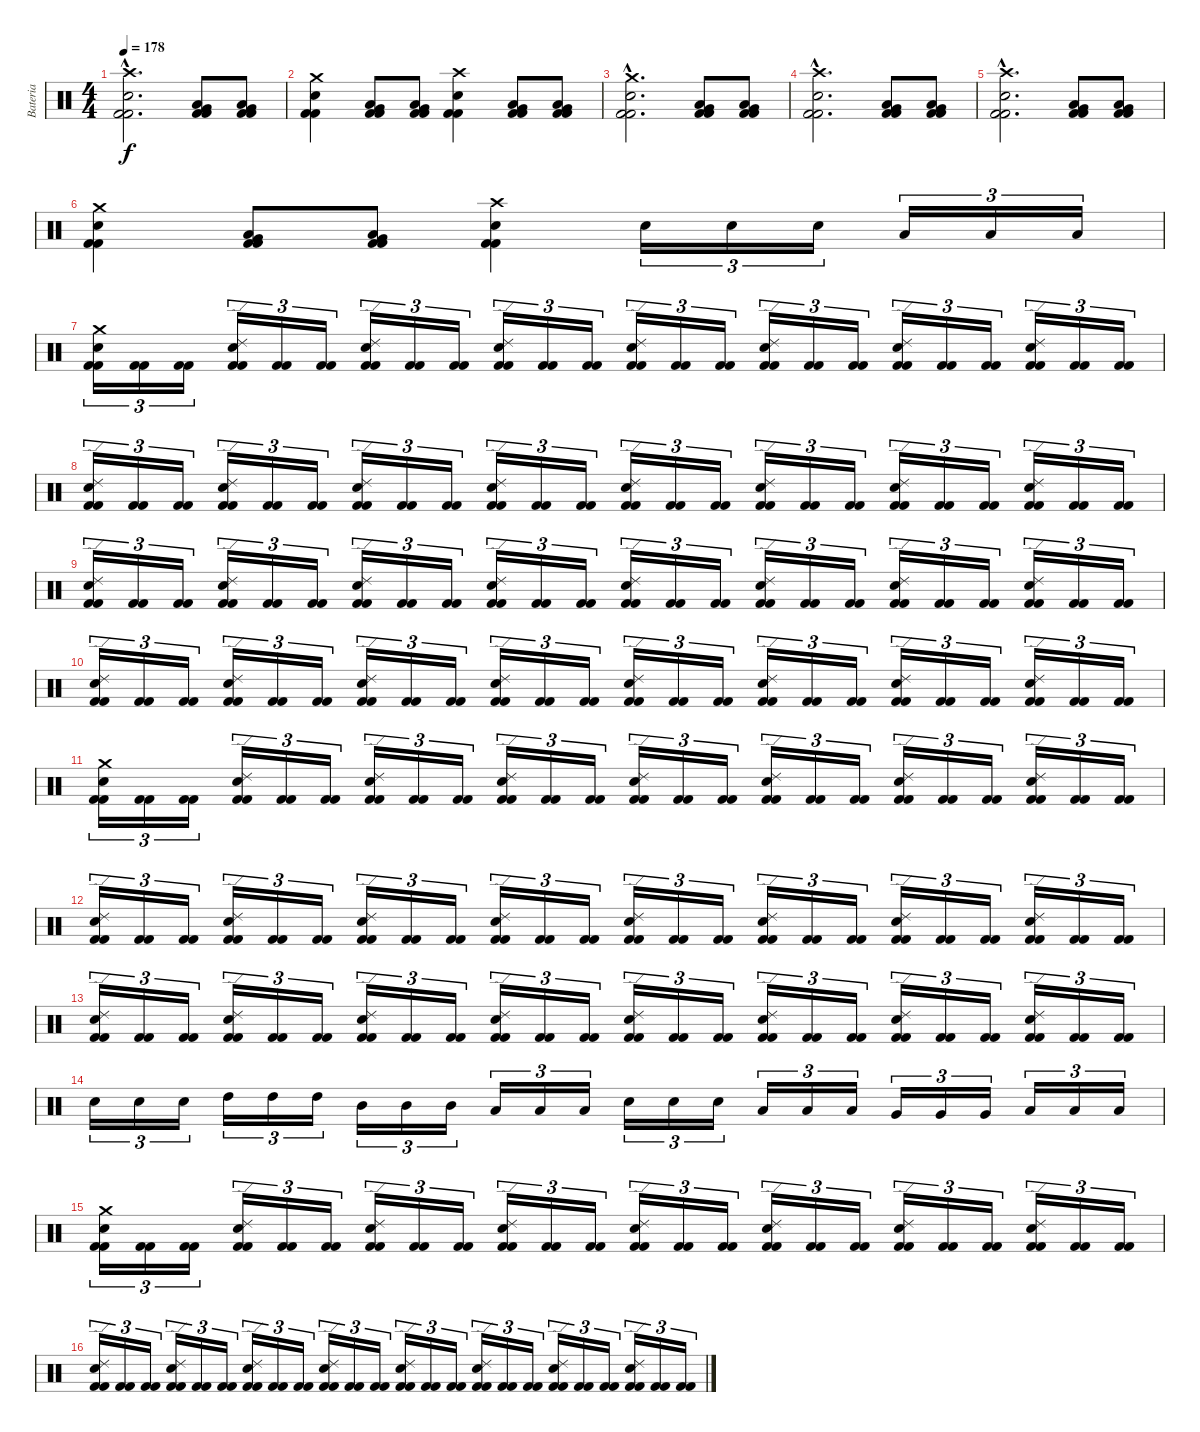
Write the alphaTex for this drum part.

\track ("Bateria" "Bateria") {instrument percussion}
\staff {score}
\articulation defaults
\ts (4 4)
\tempo 178
\clef neutral
\ks c
("Kick (hit) 2"{hac} "Kick (hit) 2"{hac} "Snare (hit) 2"{hac} "Crash high (hit)"{hac}).2{d dy f} ("Kick (hit) 2" "Kick (hit) 2" "Low Tom (hit)" "Very Low Tom (hit)").8 ("Kick (hit) 2" "Kick (hit) 2" "Low Tom (hit)" "Very Low Tom (hit)").8 |
("Kick (hit) 2" "Kick (hit) 2" "Snare (hit) 2" "Crash medium (hit)").4 ("Kick (hit) 2" "Kick (hit) 2" "Low Tom (hit)" "Very Low Tom (hit)").8 ("Kick (hit) 2" "Kick (hit) 2" "Low Tom (hit)" "Very Low Tom (hit)").8 ("Kick (hit) 2" "Kick (hit) 2" "Snare (hit) 2" "Crash high (hit)").4 ("Kick (hit) 2" "Kick (hit) 2" "Low Tom (hit)" "Very Low Tom (hit)").8 ("Kick (hit) 2" "Kick (hit) 2" "Low Tom (hit)" "Very Low Tom (hit)").8 |
("Kick (hit) 2"{hac} "Kick (hit) 2"{hac} "Snare (hit) 2"{hac} "Crash medium (hit)"{hac}).2{d} ("Kick (hit) 2" "Kick (hit) 2" "Low Tom (hit)" "Very Low Tom (hit)").8 ("Kick (hit) 2" "Kick (hit) 2" "Low Tom (hit)" "Very Low Tom (hit)").8 |
("Kick (hit) 2"{hac} "Kick (hit) 2"{hac} "Snare (hit) 2"{hac} "Crash high (hit)"{hac}).2{d} ("Kick (hit) 2" "Kick (hit) 2" "Low Tom (hit)" "Very Low Tom (hit)").8 ("Kick (hit) 2" "Kick (hit) 2" "Low Tom (hit)" "Very Low Tom (hit)").8 |
("Kick (hit) 2"{hac} "Kick (hit) 2"{hac} "Snare (hit) 2"{hac} "Crash high (hit)"{hac}).2{d} ("Kick (hit) 2" "Kick (hit) 2" "Low Tom (hit)" "Very Low Tom (hit)").8 ("Kick (hit) 2" "Kick (hit) 2" "Low Tom (hit)" "Very Low Tom (hit)").8 |
("Kick (hit) 2" "Kick (hit) 2" "Snare (hit) 2" "Crash medium (hit)").4 ("Kick (hit) 2" "Kick (hit) 2" "Low Tom (hit)" "Very Low Tom (hit)").8 ("Kick (hit) 2" "Kick (hit) 2" "Low Tom (hit)" "Very Low Tom (hit)").8 ("Kick (hit) 2" "Kick (hit) 2" "Snare (hit) 2" "Crash high (hit)").4 "Snare (hit) 2".16{tu (3 2)} "Snare (hit) 2".16{tu (3 2)} "Snare (hit) 2".16{tu (3 2)} "Low Tom (hit)".16{tu (3 2)} "Low Tom (hit)".16{tu (3 2)} "Low Tom (hit)".16{tu (3 2)} |
("Kick (hit) 2" "Kick (hit) 2" "Snare (hit) 2" "Crash medium (hit)").16{tu (3 2)} ("Kick (hit) 2" "Kick (hit) 2").16{tu (3 2)} ("Kick (hit) 2" "Kick (hit) 2").16{tu (3 2)} ("Kick (hit) 2" "Kick (hit) 2" "Snare (hit) 2" "Ride (edge) 2").16{tu (3 2)} ("Kick (hit) 2" "Kick (hit) 2").16{tu (3 2)} ("Kick (hit) 2" "Kick (hit) 2").16{tu (3 2)} ("Kick (hit) 2" "Kick (hit) 2" "Snare (hit) 2" "Ride (edge) 2").16{tu (3 2)} ("Kick (hit) 2" "Kick (hit) 2").16{tu (3 2)} ("Kick (hit) 2" "Kick (hit) 2").16{tu (3 2)} ("Kick (hit) 2" "Kick (hit) 2" "Snare (hit) 2" "Ride (edge) 2").16{tu (3 2)} ("Kick (hit) 2" "Kick (hit) 2").16{tu (3 2)} ("Kick (hit) 2" "Kick (hit) 2").16{tu (3 2)} ("Kick (hit) 2" "Kick (hit) 2" "Snare (hit) 2" "Ride (edge) 2").16{tu (3 2)} ("Kick (hit) 2" "Kick (hit) 2").16{tu (3 2)} ("Kick (hit) 2" "Kick (hit) 2").16{tu (3 2)} ("Kick (hit) 2" "Kick (hit) 2" "Snare (hit) 2" "Ride (edge) 2").16{tu (3 2)} ("Kick (hit) 2" "Kick (hit) 2").16{tu (3 2)} ("Kick (hit) 2" "Kick (hit) 2").16{tu (3 2)} ("Kick (hit) 2" "Kick (hit) 2" "Snare (hit) 2" "Ride (edge) 2").16{tu (3 2)} ("Kick (hit) 2" "Kick (hit) 2").16{tu (3 2)} ("Kick (hit) 2" "Kick (hit) 2").16{tu (3 2)} ("Kick (hit) 2" "Kick (hit) 2" "Snare (hit) 2" "Ride (edge) 2").16{tu (3 2)} ("Kick (hit) 2" "Kick (hit) 2").16{tu (3 2)} ("Kick (hit) 2" "Kick (hit) 2").16{tu (3 2)} |
("Kick (hit) 2" "Kick (hit) 2" "Snare (hit) 2" "Ride (edge) 2").16{tu (3 2)} ("Kick (hit) 2" "Kick (hit) 2").16{tu (3 2)} ("Kick (hit) 2" "Kick (hit) 2").16{tu (3 2)} ("Kick (hit) 2" "Kick (hit) 2" "Snare (hit) 2" "Ride (edge) 2").16{tu (3 2)} ("Kick (hit) 2" "Kick (hit) 2").16{tu (3 2)} ("Kick (hit) 2" "Kick (hit) 2").16{tu (3 2)} ("Kick (hit) 2" "Kick (hit) 2" "Snare (hit) 2" "Ride (edge) 2").16{tu (3 2)} ("Kick (hit) 2" "Kick (hit) 2").16{tu (3 2)} ("Kick (hit) 2" "Kick (hit) 2").16{tu (3 2)} ("Kick (hit) 2" "Kick (hit) 2" "Snare (hit) 2" "Ride (edge) 2").16{tu (3 2)} ("Kick (hit) 2" "Kick (hit) 2").16{tu (3 2)} ("Kick (hit) 2" "Kick (hit) 2").16{tu (3 2)} ("Kick (hit) 2" "Kick (hit) 2" "Snare (hit) 2" "Ride (edge) 2").16{tu (3 2)} ("Kick (hit) 2" "Kick (hit) 2").16{tu (3 2)} ("Kick (hit) 2" "Kick (hit) 2").16{tu (3 2)} ("Kick (hit) 2" "Kick (hit) 2" "Snare (hit) 2" "Ride (edge) 2").16{tu (3 2)} ("Kick (hit) 2" "Kick (hit) 2").16{tu (3 2)} ("Kick (hit) 2" "Kick (hit) 2").16{tu (3 2)} ("Kick (hit) 2" "Kick (hit) 2" "Snare (hit) 2" "Ride (edge) 2").16{tu (3 2)} ("Kick (hit) 2" "Kick (hit) 2").16{tu (3 2)} ("Kick (hit) 2" "Kick (hit) 2").16{tu (3 2)} ("Kick (hit) 2" "Kick (hit) 2" "Snare (hit) 2" "Ride (edge) 2").16{tu (3 2)} ("Kick (hit) 2" "Kick (hit) 2").16{tu (3 2)} ("Kick (hit) 2" "Kick (hit) 2").16{tu (3 2)} |
("Kick (hit) 2" "Kick (hit) 2" "Snare (hit) 2" "Ride (edge) 2").16{tu (3 2)} ("Kick (hit) 2" "Kick (hit) 2").16{tu (3 2)} ("Kick (hit) 2" "Kick (hit) 2").16{tu (3 2)} ("Kick (hit) 2" "Kick (hit) 2" "Snare (hit) 2" "Ride (edge) 2").16{tu (3 2)} ("Kick (hit) 2" "Kick (hit) 2").16{tu (3 2)} ("Kick (hit) 2" "Kick (hit) 2").16{tu (3 2)} ("Kick (hit) 2" "Kick (hit) 2" "Snare (hit) 2" "Ride (edge) 2").16{tu (3 2)} ("Kick (hit) 2" "Kick (hit) 2").16{tu (3 2)} ("Kick (hit) 2" "Kick (hit) 2").16{tu (3 2)} ("Kick (hit) 2" "Kick (hit) 2" "Snare (hit) 2" "Ride (edge) 2").16{tu (3 2)} ("Kick (hit) 2" "Kick (hit) 2").16{tu (3 2)} ("Kick (hit) 2" "Kick (hit) 2").16{tu (3 2)} ("Kick (hit) 2" "Kick (hit) 2" "Snare (hit) 2" "Ride (edge) 2").16{tu (3 2)} ("Kick (hit) 2" "Kick (hit) 2").16{tu (3 2)} ("Kick (hit) 2" "Kick (hit) 2").16{tu (3 2)} ("Kick (hit) 2" "Kick (hit) 2" "Snare (hit) 2" "Ride (edge) 2").16{tu (3 2)} ("Kick (hit) 2" "Kick (hit) 2").16{tu (3 2)} ("Kick (hit) 2" "Kick (hit) 2").16{tu (3 2)} ("Kick (hit) 2" "Kick (hit) 2" "Snare (hit) 2" "Ride (edge) 2").16{tu (3 2)} ("Kick (hit) 2" "Kick (hit) 2").16{tu (3 2)} ("Kick (hit) 2" "Kick (hit) 2").16{tu (3 2)} ("Kick (hit) 2" "Kick (hit) 2" "Snare (hit) 2" "Ride (edge) 2").16{tu (3 2)} ("Kick (hit) 2" "Kick (hit) 2").16{tu (3 2)} ("Kick (hit) 2" "Kick (hit) 2").16{tu (3 2)} |
("Kick (hit) 2" "Kick (hit) 2" "Snare (hit) 2" "Ride (edge) 2").16{tu (3 2)} ("Kick (hit) 2" "Kick (hit) 2").16{tu (3 2)} ("Kick (hit) 2" "Kick (hit) 2").16{tu (3 2)} ("Kick (hit) 2" "Kick (hit) 2" "Snare (hit) 2" "Ride (edge) 2").16{tu (3 2)} ("Kick (hit) 2" "Kick (hit) 2").16{tu (3 2)} ("Kick (hit) 2" "Kick (hit) 2").16{tu (3 2)} ("Kick (hit) 2" "Kick (hit) 2" "Snare (hit) 2" "Ride (edge) 2").16{tu (3 2)} ("Kick (hit) 2" "Kick (hit) 2").16{tu (3 2)} ("Kick (hit) 2" "Kick (hit) 2").16{tu (3 2)} ("Kick (hit) 2" "Kick (hit) 2" "Snare (hit) 2" "Ride (edge) 2").16{tu (3 2)} ("Kick (hit) 2" "Kick (hit) 2").16{tu (3 2)} ("Kick (hit) 2" "Kick (hit) 2").16{tu (3 2)} ("Kick (hit) 2" "Kick (hit) 2" "Snare (hit) 2" "Ride (edge) 2").16{tu (3 2)} ("Kick (hit) 2" "Kick (hit) 2").16{tu (3 2)} ("Kick (hit) 2" "Kick (hit) 2").16{tu (3 2)} ("Kick (hit) 2" "Kick (hit) 2" "Snare (hit) 2" "Ride (edge) 2").16{tu (3 2)} ("Kick (hit) 2" "Kick (hit) 2").16{tu (3 2)} ("Kick (hit) 2" "Kick (hit) 2").16{tu (3 2)} ("Kick (hit) 2" "Kick (hit) 2" "Snare (hit) 2" "Ride (edge) 2").16{tu (3 2)} ("Kick (hit) 2" "Kick (hit) 2").16{tu (3 2)} ("Kick (hit) 2" "Kick (hit) 2").16{tu (3 2)} ("Kick (hit) 2" "Kick (hit) 2" "Snare (hit) 2" "Ride (edge) 2").16{tu (3 2)} ("Kick (hit) 2" "Kick (hit) 2").16{tu (3 2)} ("Kick (hit) 2" "Kick (hit) 2").16{tu (3 2)} |
("Kick (hit) 2" "Kick (hit) 2" "Snare (hit) 2" "Crash medium (hit)").16{tu (3 2)} ("Kick (hit) 2" "Kick (hit) 2").16{tu (3 2)} ("Kick (hit) 2" "Kick (hit) 2").16{tu (3 2)} ("Kick (hit) 2" "Kick (hit) 2" "Snare (hit) 2" "Ride (edge) 2").16{tu (3 2)} ("Kick (hit) 2" "Kick (hit) 2").16{tu (3 2)} ("Kick (hit) 2" "Kick (hit) 2").16{tu (3 2)} ("Kick (hit) 2" "Kick (hit) 2" "Snare (hit) 2" "Ride (edge) 2").16{tu (3 2)} ("Kick (hit) 2" "Kick (hit) 2").16{tu (3 2)} ("Kick (hit) 2" "Kick (hit) 2").16{tu (3 2)} ("Kick (hit) 2" "Kick (hit) 2" "Snare (hit) 2" "Ride (edge) 2").16{tu (3 2)} ("Kick (hit) 2" "Kick (hit) 2").16{tu (3 2)} ("Kick (hit) 2" "Kick (hit) 2").16{tu (3 2)} ("Kick (hit) 2" "Kick (hit) 2" "Snare (hit) 2" "Ride (edge) 2").16{tu (3 2)} ("Kick (hit) 2" "Kick (hit) 2").16{tu (3 2)} ("Kick (hit) 2" "Kick (hit) 2").16{tu (3 2)} ("Kick (hit) 2" "Kick (hit) 2" "Snare (hit) 2" "Ride (edge) 2").16{tu (3 2)} ("Kick (hit) 2" "Kick (hit) 2").16{tu (3 2)} ("Kick (hit) 2" "Kick (hit) 2").16{tu (3 2)} ("Kick (hit) 2" "Kick (hit) 2" "Snare (hit) 2" "Ride (edge) 2").16{tu (3 2)} ("Kick (hit) 2" "Kick (hit) 2").16{tu (3 2)} ("Kick (hit) 2" "Kick (hit) 2").16{tu (3 2)} ("Kick (hit) 2" "Kick (hit) 2" "Snare (hit) 2" "Ride (edge) 2").16{tu (3 2)} ("Kick (hit) 2" "Kick (hit) 2").16{tu (3 2)} ("Kick (hit) 2" "Kick (hit) 2").16{tu (3 2)} |
("Kick (hit) 2" "Kick (hit) 2" "Snare (hit) 2" "Ride (edge) 2").16{tu (3 2)} ("Kick (hit) 2" "Kick (hit) 2").16{tu (3 2)} ("Kick (hit) 2" "Kick (hit) 2").16{tu (3 2)} ("Kick (hit) 2" "Kick (hit) 2" "Snare (hit) 2" "Ride (edge) 2").16{tu (3 2)} ("Kick (hit) 2" "Kick (hit) 2").16{tu (3 2)} ("Kick (hit) 2" "Kick (hit) 2").16{tu (3 2)} ("Kick (hit) 2" "Kick (hit) 2" "Snare (hit) 2" "Ride (edge) 2").16{tu (3 2)} ("Kick (hit) 2" "Kick (hit) 2").16{tu (3 2)} ("Kick (hit) 2" "Kick (hit) 2").16{tu (3 2)} ("Kick (hit) 2" "Kick (hit) 2" "Snare (hit) 2" "Ride (edge) 2").16{tu (3 2)} ("Kick (hit) 2" "Kick (hit) 2").16{tu (3 2)} ("Kick (hit) 2" "Kick (hit) 2").16{tu (3 2)} ("Kick (hit) 2" "Kick (hit) 2" "Snare (hit) 2" "Ride (edge) 2").16{tu (3 2)} ("Kick (hit) 2" "Kick (hit) 2").16{tu (3 2)} ("Kick (hit) 2" "Kick (hit) 2").16{tu (3 2)} ("Kick (hit) 2" "Kick (hit) 2" "Snare (hit) 2" "Ride (edge) 2").16{tu (3 2)} ("Kick (hit) 2" "Kick (hit) 2").16{tu (3 2)} ("Kick (hit) 2" "Kick (hit) 2").16{tu (3 2)} ("Kick (hit) 2" "Kick (hit) 2" "Snare (hit) 2" "Ride (edge) 2").16{tu (3 2)} ("Kick (hit) 2" "Kick (hit) 2").16{tu (3 2)} ("Kick (hit) 2" "Kick (hit) 2").16{tu (3 2)} ("Kick (hit) 2" "Kick (hit) 2" "Snare (hit) 2" "Ride (edge) 2").16{tu (3 2)} ("Kick (hit) 2" "Kick (hit) 2").16{tu (3 2)} ("Kick (hit) 2" "Kick (hit) 2").16{tu (3 2)} |
("Kick (hit) 2" "Kick (hit) 2" "Snare (hit) 2" "Ride (edge) 2").16{tu (3 2)} ("Kick (hit) 2" "Kick (hit) 2").16{tu (3 2)} ("Kick (hit) 2" "Kick (hit) 2").16{tu (3 2)} ("Kick (hit) 2" "Kick (hit) 2" "Snare (hit) 2" "Ride (edge) 2").16{tu (3 2)} ("Kick (hit) 2" "Kick (hit) 2").16{tu (3 2)} ("Kick (hit) 2" "Kick (hit) 2").16{tu (3 2)} ("Kick (hit) 2" "Kick (hit) 2" "Snare (hit) 2" "Ride (edge) 2").16{tu (3 2)} ("Kick (hit) 2" "Kick (hit) 2").16{tu (3 2)} ("Kick (hit) 2" "Kick (hit) 2").16{tu (3 2)} ("Kick (hit) 2" "Kick (hit) 2" "Snare (hit) 2" "Ride (edge) 2").16{tu (3 2)} ("Kick (hit) 2" "Kick (hit) 2").16{tu (3 2)} ("Kick (hit) 2" "Kick (hit) 2").16{tu (3 2)} ("Kick (hit) 2" "Kick (hit) 2" "Snare (hit) 2" "Ride (edge) 2").16{tu (3 2)} ("Kick (hit) 2" "Kick (hit) 2").16{tu (3 2)} ("Kick (hit) 2" "Kick (hit) 2").16{tu (3 2)} ("Kick (hit) 2" "Kick (hit) 2" "Snare (hit) 2" "Ride (edge) 2").16{tu (3 2)} ("Kick (hit) 2" "Kick (hit) 2").16{tu (3 2)} ("Kick (hit) 2" "Kick (hit) 2").16{tu (3 2)} ("Kick (hit) 2" "Kick (hit) 2" "Snare (hit) 2" "Ride (edge) 2").16{tu (3 2)} ("Kick (hit) 2" "Kick (hit) 2").16{tu (3 2)} ("Kick (hit) 2" "Kick (hit) 2").16{tu (3 2)} ("Kick (hit) 2" "Kick (hit) 2" "Snare (hit) 2" "Ride (edge) 2").16{tu (3 2)} ("Kick (hit) 2" "Kick (hit) 2").16{tu (3 2)} ("Kick (hit) 2" "Kick (hit) 2").16{tu (3 2)} |
"Snare (hit) 2".16{tu (3 2)} "Snare (hit) 2".16{tu (3 2)} "Snare (hit) 2".16{tu (3 2)} "High Tom (hit)".16{tu (3 2)} "High Tom (hit)".16{tu (3 2)} "High Tom (hit)".16{tu (3 2)} "Mid Tom (hit)".16{tu (3 2)} "Mid Tom (hit)".16{tu (3 2)} "Mid Tom (hit)".16{tu (3 2)} "Low Tom (hit)".16{tu (3 2)} "Low Tom (hit)".16{tu (3 2)} "Low Tom (hit)".16{tu (3 2)} "Snare (hit) 2".16{tu (3 2)} "Snare (hit) 2".16{tu (3 2)} "Snare (hit) 2".16{tu (3 2)} "Low Tom (hit)".16{tu (3 2)} "Low Tom (hit)".16{tu (3 2)} "Low Tom (hit)".16{tu (3 2)} "Very Low Tom (hit)".16{tu (3 2)} "Very Low Tom (hit)".16{tu (3 2)} "Very Low Tom (hit)".16{tu (3 2)} "Low Floor Tom (hit)".16{tu (3 2)} "Low Floor Tom (hit)".16{tu (3 2)} "Low Floor Tom (hit)".16{tu (3 2)} |
("Kick (hit) 2" "Kick (hit) 2" "Snare (hit) 2" "Crash medium (hit)").16{tu (3 2)} ("Kick (hit) 2" "Kick (hit) 2").16{tu (3 2)} ("Kick (hit) 2" "Kick (hit) 2").16{tu (3 2)} ("Kick (hit) 2" "Kick (hit) 2" "Snare (hit) 2" "Ride (edge) 2").16{tu (3 2)} ("Kick (hit) 2" "Kick (hit) 2").16{tu (3 2)} ("Kick (hit) 2" "Kick (hit) 2").16{tu (3 2)} ("Kick (hit) 2" "Kick (hit) 2" "Snare (hit) 2" "Ride (edge) 2").16{tu (3 2)} ("Kick (hit) 2" "Kick (hit) 2").16{tu (3 2)} ("Kick (hit) 2" "Kick (hit) 2").16{tu (3 2)} ("Kick (hit) 2" "Kick (hit) 2" "Snare (hit) 2" "Ride (edge) 2").16{tu (3 2)} ("Kick (hit) 2" "Kick (hit) 2").16{tu (3 2)} ("Kick (hit) 2" "Kick (hit) 2").16{tu (3 2)} ("Kick (hit) 2" "Kick (hit) 2" "Snare (hit) 2" "Ride (edge) 2").16{tu (3 2)} ("Kick (hit) 2" "Kick (hit) 2").16{tu (3 2)} ("Kick (hit) 2" "Kick (hit) 2").16{tu (3 2)} ("Kick (hit) 2" "Kick (hit) 2" "Snare (hit) 2" "Ride (edge) 2").16{tu (3 2)} ("Kick (hit) 2" "Kick (hit) 2").16{tu (3 2)} ("Kick (hit) 2" "Kick (hit) 2").16{tu (3 2)} ("Kick (hit) 2" "Kick (hit) 2" "Snare (hit) 2" "Ride (edge) 2").16{tu (3 2)} ("Kick (hit) 2" "Kick (hit) 2").16{tu (3 2)} ("Kick (hit) 2" "Kick (hit) 2").16{tu (3 2)} ("Kick (hit) 2" "Kick (hit) 2" "Snare (hit) 2" "Ride (edge) 2").16{tu (3 2)} ("Kick (hit) 2" "Kick (hit) 2").16{tu (3 2)} ("Kick (hit) 2" "Kick (hit) 2").16{tu (3 2)} |
("Kick (hit) 2" "Kick (hit) 2" "Snare (hit) 2" "Ride (edge) 2").16{tu (3 2)} ("Kick (hit) 2" "Kick (hit) 2").16{tu (3 2)} ("Kick (hit) 2" "Kick (hit) 2").16{tu (3 2)} ("Kick (hit) 2" "Kick (hit) 2" "Snare (hit) 2" "Ride (edge) 2").16{tu (3 2)} ("Kick (hit) 2" "Kick (hit) 2").16{tu (3 2)} ("Kick (hit) 2" "Kick (hit) 2").16{tu (3 2)} ("Kick (hit) 2" "Kick (hit) 2" "Snare (hit) 2" "Ride (edge) 2").16{tu (3 2)} ("Kick (hit) 2" "Kick (hit) 2").16{tu (3 2)} ("Kick (hit) 2" "Kick (hit) 2").16{tu (3 2)} ("Kick (hit) 2" "Kick (hit) 2" "Snare (hit) 2" "Ride (edge) 2").16{tu (3 2)} ("Kick (hit) 2" "Kick (hit) 2").16{tu (3 2)} ("Kick (hit) 2" "Kick (hit) 2").16{tu (3 2)} ("Kick (hit) 2" "Kick (hit) 2" "Snare (hit) 2" "Ride (edge) 2").16{tu (3 2)} ("Kick (hit) 2" "Kick (hit) 2").16{tu (3 2)} ("Kick (hit) 2" "Kick (hit) 2").16{tu (3 2)} ("Kick (hit) 2" "Kick (hit) 2" "Snare (hit) 2" "Ride (edge) 2").16{tu (3 2)} ("Kick (hit) 2" "Kick (hit) 2").16{tu (3 2)} ("Kick (hit) 2" "Kick (hit) 2").16{tu (3 2)} ("Kick (hit) 2" "Kick (hit) 2" "Snare (hit) 2" "Ride (edge) 2").16{tu (3 2)} ("Kick (hit) 2" "Kick (hit) 2").16{tu (3 2)} ("Kick (hit) 2" "Kick (hit) 2").16{tu (3 2)} ("Kick (hit) 2" "Kick (hit) 2" "Snare (hit) 2" "Ride (edge) 2").16{tu (3 2)} ("Kick (hit) 2" "Kick (hit) 2").16{tu (3 2)} ("Kick (hit) 2" "Kick (hit) 2").16{tu (3 2)}
